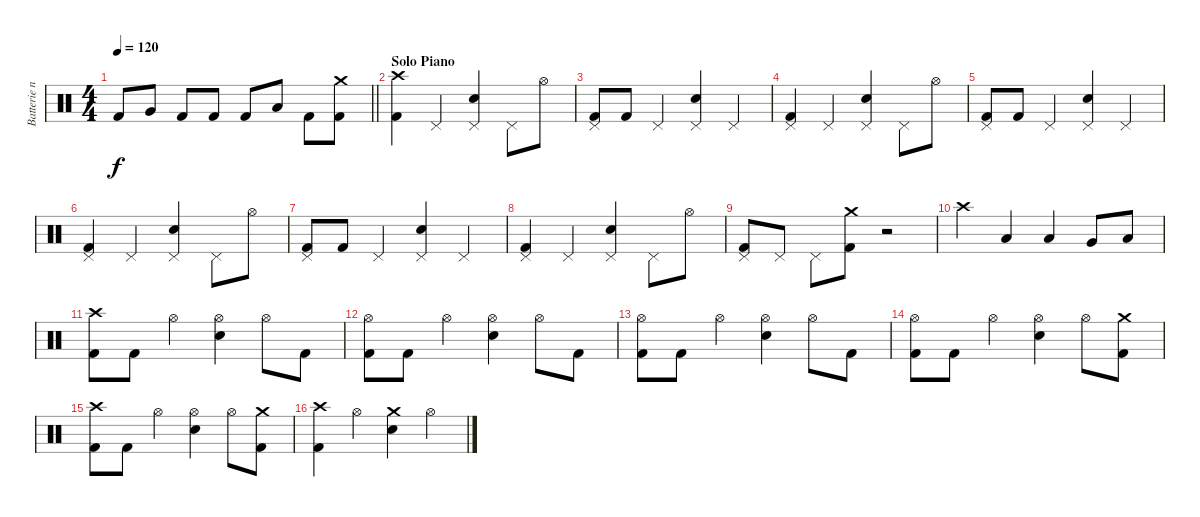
\track ("Batterie n°3" "Batterie n") {instrument percussion}
\staff {score}
\articulation defaults
\ts (4 4)
\tempo 120
\clef neutral
\barLineRight lightlight
\ks c "Kick (hit) 2".8{dy f} "Very Low Tom (hit)".8 "Kick (hit) 2".8 "Kick (hit) 2".8 "Kick (hit) 2".8 "Low Tom (hit)".8 "Kick (hit) 2".8
("Crash medium (hit)" "Kick (hit) 2").8 |
\section ("" "Solo Piano ")
("Crash high (hit)" "Kick (hit) 2").4 "Pedal Hi-Hat (hit)".4 ("Pedal Hi-Hat (hit)" "Snare (hit) 2").4 "Pedal Hi-Hat (hit)".8 "Hi-Hat (open)".8 |
("Pedal Hi-Hat (hit)" "Kick (hit) 2").8 "Kick (hit) 2".8 "Pedal Hi-Hat (hit)".4 ("Pedal Hi-Hat (hit)" "Snare (hit) 2").4 "Pedal Hi-Hat (hit)".4 |
("Pedal Hi-Hat (hit)" "Kick (hit) 2").4 "Pedal Hi-Hat (hit)".4 ("Pedal Hi-Hat (hit)" "Snare (hit) 2").4 "Pedal Hi-Hat (hit)".8 "Hi-Hat (open)".8 |
("Pedal Hi-Hat (hit)" "Kick (hit) 2").8 "Kick (hit) 2".8 "Pedal Hi-Hat (hit)".4 ("Pedal Hi-Hat (hit)" "Snare (hit) 2").4 "Pedal Hi-Hat (hit)".4 |
("Pedal Hi-Hat (hit)" "Kick (hit) 2").4 "Pedal Hi-Hat (hit)".4 ("Pedal Hi-Hat (hit)" "Snare (hit) 2").4 "Pedal Hi-Hat (hit)".8 "Hi-Hat (open)".8 |
("Pedal Hi-Hat (hit)" "Kick (hit) 2").8 "Kick (hit) 2".8 "Pedal Hi-Hat (hit)".4 ("Pedal Hi-Hat (hit)" "Snare (hit) 2").4 "Pedal Hi-Hat (hit)".4 |
("Pedal Hi-Hat (hit)" "Kick (hit) 2").4 "Pedal Hi-Hat (hit)".4 ("Pedal Hi-Hat (hit)" "Snare (hit) 2").4 "Pedal Hi-Hat (hit)".8 "Hi-Hat (open)".8 |
("Pedal Hi-Hat (hit)" "Kick (hit) 2").8 "Pedal Hi-Hat (hit)".8 "Pedal Hi-Hat (hit)".8 ("Crash medium (hit)" "Kick (hit) 2").8 r.2 |
"Crash high (hit)".4 "Low Tom (hit)".4 "Low Tom (hit)".4 "Very Low Tom (hit)".8 "Low Floor Tom (hit)".8 |
("Crash high (hit)" "Kick (hit) 2").8 "Kick (hit) 2".8 "Hi-Hat (open)".4 ("Hi-Hat (open)" "Snare (hit) 2").4 "Hi-Hat (open)".8 "Kick (hit) 2".8 |
("Hi-Hat (open)" "Kick (hit) 2").8 "Kick (hit) 2".8 "Hi-Hat (open)".4 ("Hi-Hat (open)" "Snare (hit) 2").4 "Hi-Hat (open)".8 "Kick (hit) 2".8 |
("Hi-Hat (open)" "Kick (hit) 2").8 "Kick (hit) 2".8 "Hi-Hat (open)".4 ("Hi-Hat (open)" "Snare (hit) 2").4 "Hi-Hat (open)".8 "Kick (hit) 2".8 |
("Hi-Hat (open)" "Kick (hit) 2").8 "Kick (hit) 2".8 "Hi-Hat (open)".4 ("Hi-Hat (open)" "Snare (hit) 2").4 "Hi-Hat (open)".8 ("Crash medium (hit)" "Kick (hit) 2").8 |
("Crash high (hit)" "Kick (hit) 2").8 "Kick (hit) 2".8 "Hi-Hat (open)".4 ("Hi-Hat (open)" "Snare (hit) 2").4 "Hi-Hat (open)".8 ("Crash medium (hit)" "Kick (hit) 2").8 |
("Crash high (hit)" "Kick (hit) 2").4 "Hi-Hat (open)".4 ("Crash medium (hit)" "Snare (hit) 2").4 "Hi-Hat (open)".4
